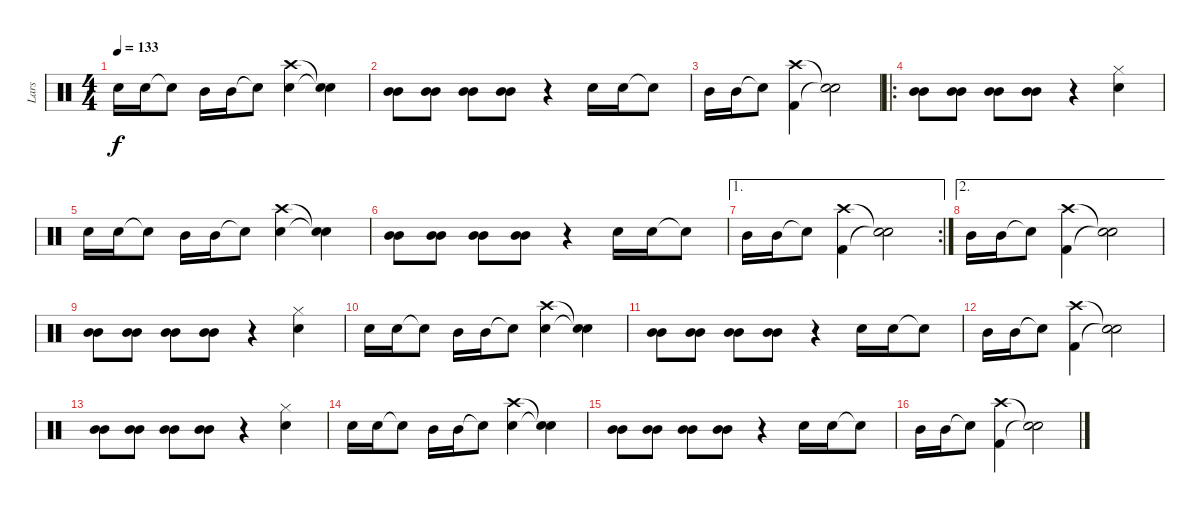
\track ("Lars" "Lars") {instrument percussion}
\staff {score}
\articulation defaults
\ts (4 4)
\tempo 133
\clef neutral
\ks c "Electric Snare (hit)".16{dy f} "Electric Snare (hit)".16 "Snare (hit)"{t}.8 "Mid Tom (hit)".16 "Mid Tom (hit)".16 "Snare (hit)"{t}.8
("Crash high (hit)" "Electric Snare (hit)").4 ("Snare (hit)"{t} "Snare (hit)"{t}).4 |
("Mid Tom (hit)" "Mid Tom (hit)").8 ("Mid Tom (hit)" "Mid Tom (hit)").8 ("Mid Tom (hit)" "Mid Tom (hit)").8 ("Mid Tom (hit)" "Mid Tom (hit)").8 r.4 "Electric Snare (hit)".16 "Electric Snare (hit)".16 "Snare (hit)"{t}.8 |
"Mid Tom (hit)".16 "Mid Tom (hit)".16 "Snare (hit)"{t}.8 ("Crash high (hit)" "Kick (hit) 2").4 ("Snare (hit)"{t} "Snare (hit)"{t}).2 |
\ro
("Mid Tom (hit)" "Mid Tom (hit)").8 ("Mid Tom (hit)" "Mid Tom (hit)").8 ("Mid Tom (hit)" "Mid Tom (hit)").8 ("Mid Tom (hit)" "Mid Tom (hit)").8 r.4 ("Hi-Hat (closed)" "Electric Snare (hit)").4 |
"Electric Snare (hit)".16 "Electric Snare (hit)".16 "Snare (hit)"{t}.8 "Mid Tom (hit)".16 "Mid Tom (hit)".16 "Snare (hit)"{t}.8 ("Crash high (hit)" "Electric Snare (hit)").4 ("Snare (hit)"{t} "Snare (hit)"{t}).4 |
("Mid Tom (hit)" "Mid Tom (hit)").8 ("Mid Tom (hit)" "Mid Tom (hit)").8 ("Mid Tom (hit)" "Mid Tom (hit)").8 ("Mid Tom (hit)" "Mid Tom (hit)").8 r.4 "Electric Snare (hit)".16 "Electric Snare (hit)".16 "Snare (hit)"{t}.8 |
\ae 1
\rc 2 "Mid Tom (hit)".16 "Mid Tom (hit)".16 "Snare (hit)"{t}.8
("Crash high (hit)" "Kick (hit) 2").4 ("Snare (hit)"{t} "Snare (hit)"{t}).2 |
\ae 2 "Mid Tom (hit)".16 "Mid Tom (hit)".16 "Snare (hit)"{t}.8
("Crash high (hit)" "Kick (hit) 2").4 ("Snare (hit)"{t} "Snare (hit)"{t}).2 |
("Mid Tom (hit)" "Mid Tom (hit)").8 ("Mid Tom (hit)" "Mid Tom (hit)").8 ("Mid Tom (hit)" "Mid Tom (hit)").8 ("Mid Tom (hit)" "Mid Tom (hit)").8 r.4 ("Hi-Hat (closed)" "Electric Snare (hit)").4 |
"Electric Snare (hit)".16 "Electric Snare (hit)".16 "Snare (hit)"{t}.8 "Mid Tom (hit)".16 "Mid Tom (hit)".16 "Snare (hit)"{t}.8 ("Crash high (hit)" "Electric Snare (hit)").4 ("Snare (hit)"{t} "Snare (hit)"{t}).4 |
("Mid Tom (hit)" "Mid Tom (hit)").8 ("Mid Tom (hit)" "Mid Tom (hit)").8 ("Mid Tom (hit)" "Mid Tom (hit)").8 ("Mid Tom (hit)" "Mid Tom (hit)").8 r.4 "Electric Snare (hit)".16 "Electric Snare (hit)".16 "Snare (hit)"{t}.8 |
"Mid Tom (hit)".16 "Mid Tom (hit)".16 "Snare (hit)"{t}.8 ("Crash high (hit)" "Kick (hit) 2").4 ("Snare (hit)"{t} "Snare (hit)"{t}).2 |
("Mid Tom (hit)" "Mid Tom (hit)").8 ("Mid Tom (hit)" "Mid Tom (hit)").8 ("Mid Tom (hit)" "Mid Tom (hit)").8 ("Mid Tom (hit)" "Mid Tom (hit)").8 r.4 ("Hi-Hat (closed)" "Electric Snare (hit)").4 |
"Electric Snare (hit)".16 "Electric Snare (hit)".16 "Snare (hit)"{t}.8 "Mid Tom (hit)".16 "Mid Tom (hit)".16 "Snare (hit)"{t}.8 ("Crash high (hit)" "Electric Snare (hit)").4 ("Snare (hit)"{t} "Snare (hit)"{t}).4 |
("Mid Tom (hit)" "Mid Tom (hit)").8 ("Mid Tom (hit)" "Mid Tom (hit)").8 ("Mid Tom (hit)" "Mid Tom (hit)").8 ("Mid Tom (hit)" "Mid Tom (hit)").8 r.4 "Electric Snare (hit)".16 "Electric Snare (hit)".16 "Snare (hit)"{t}.8 |
"Mid Tom (hit)".16 "Mid Tom (hit)".16 "Snare (hit)"{t}.8 ("Crash high (hit)" "Kick (hit) 2").4 ("Snare (hit)"{t} "Snare (hit)"{t}).2
